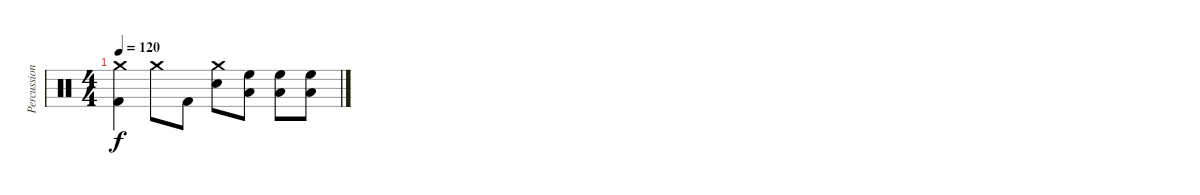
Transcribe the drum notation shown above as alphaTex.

\track ("Percussion" "Percussion") {instrument percussion}
\staff {score}
\articulation defaults
\ts (4 4)
\tempo 120
\clef neutral
\ks c
("Crash medium (hit)" "Kick (hit) 2").4{dy f} "Crash medium (hit)".8 "Kick (hit) 2".8 ("Crash medium (hit)" "Electric Snare (hit)").8 ("High Floor Tom (hit)" "Low Floor Tom (hit)").8 ("High Floor Tom (hit)" "Low Floor Tom (hit)").8 ("High Floor Tom (hit)" "Low Floor Tom (hit)").8
